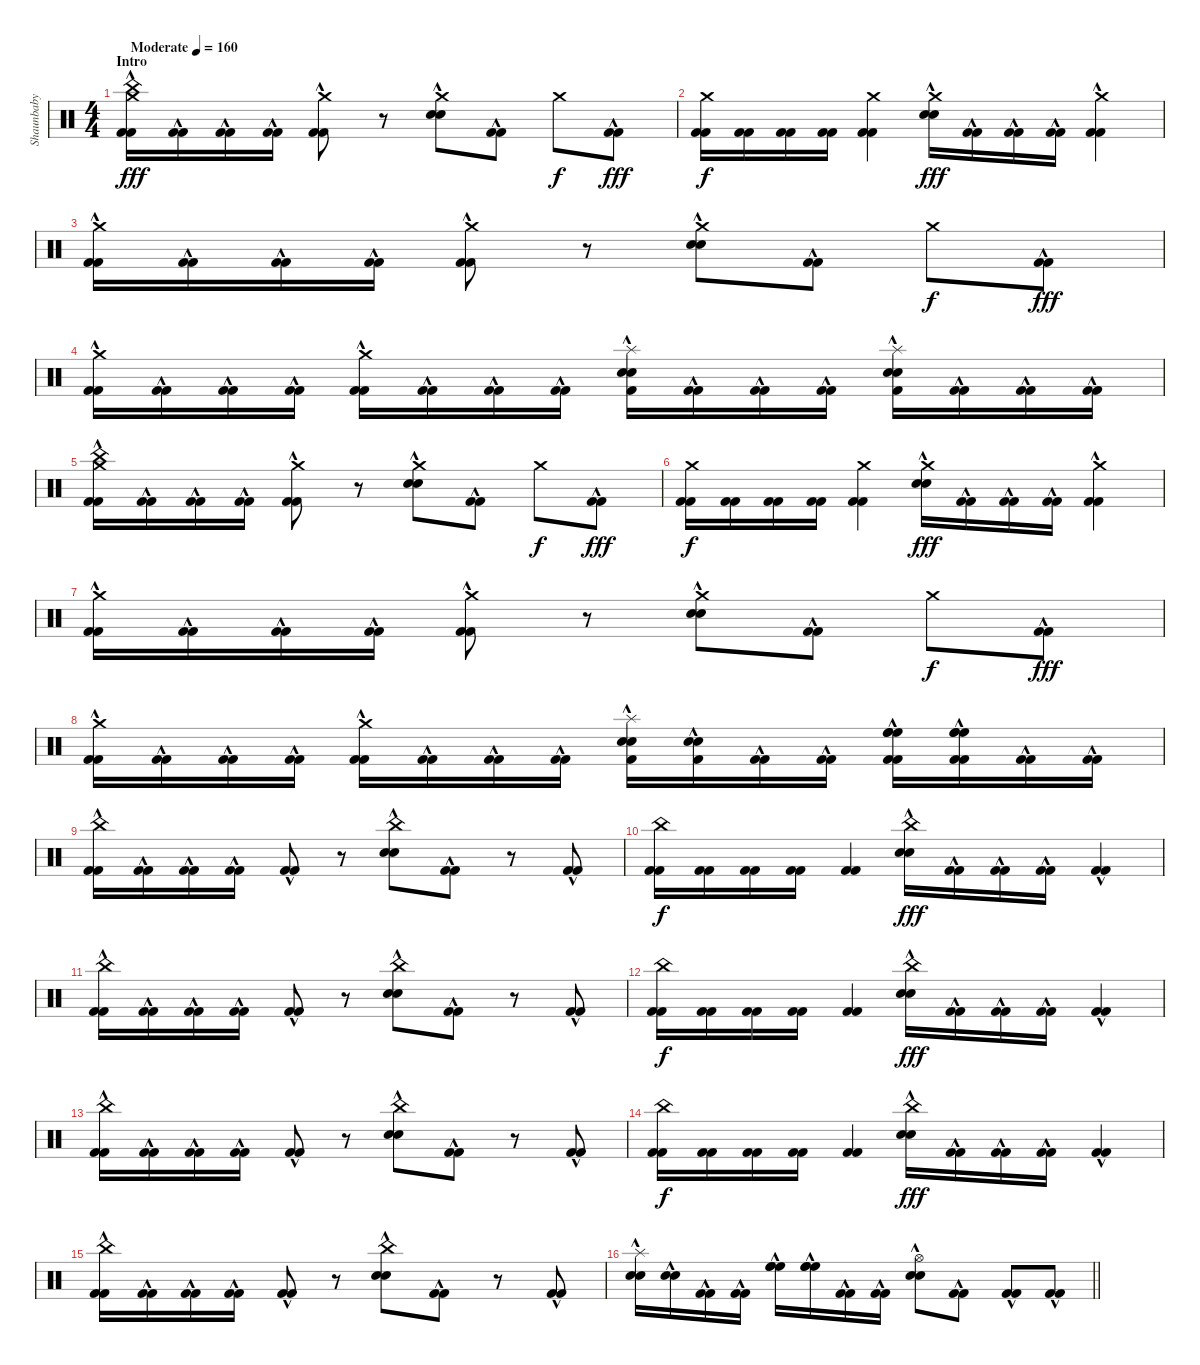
\track ("Shaunbaby" "Shaunbaby") {instrument percussion}
\staff {score}
\articulation defaults
\ts (4 4)
\section ("" "Intro")
\tempo (160 "Moderate")
\clef neutral
\ks c
("China (hit)" "Crash medium (hit)" "Kick (hit) 2"{hac} "Kick (hit) 2"{hac}).16{dy fff} ("Kick (hit) 2"{hac} "Kick (hit) 2"{hac}).16 ("Kick (hit) 2"{hac} "Kick (hit) 2"{hac}).16 ("Kick (hit) 2"{hac} "Kick (hit) 2"{hac}).16 ("Crash medium (hit)" "Kick (hit) 2"{hac} "Kick (hit) 2"{hac}).8 r.8 ("Crash medium (hit)" "Electric Snare (hit)"{hac} "Electric Snare (hit)"{hac}).8 ("Kick (hit) 2"{hac} "Kick (hit) 2"{hac}).8 "Crash medium (hit)".8{dy f} ("Kick (hit) 2"{hac} "Kick (hit) 2"{hac}).8{dy fff} |
("Crash medium (hit)" "Kick (hit) 2" "Kick (hit) 2").16{dy f} ("Kick (hit) 2" "Kick (hit) 2").16 ("Kick (hit) 2" "Kick (hit) 2").16 ("Kick (hit) 2" "Kick (hit) 2").16 ("Crash medium (hit)" "Kick (hit) 2" "Kick (hit) 2").4 ("Crash medium (hit)" "Electric Snare (hit)"{hac} "Electric Snare (hit)"{hac}).16{dy fff} ("Kick (hit) 2"{hac} "Kick (hit) 2"{hac}).16 ("Kick (hit) 2"{hac} "Kick (hit) 2"{hac}).16 ("Kick (hit) 2"{hac} "Kick (hit) 2"{hac}).16 ("Crash medium (hit)" "Kick (hit) 2"{hac} "Kick (hit) 2"{hac}).4 |
("Crash medium (hit)" "Kick (hit) 2"{hac} "Kick (hit) 2"{hac}).16 ("Kick (hit) 2"{hac} "Kick (hit) 2"{hac}).16 ("Kick (hit) 2"{hac} "Kick (hit) 2"{hac}).16 ("Kick (hit) 2"{hac} "Kick (hit) 2"{hac}).16 ("Crash medium (hit)" "Kick (hit) 2"{hac} "Kick (hit) 2"{hac}).8 r.8 ("Crash medium (hit)" "Electric Snare (hit)"{hac} "Electric Snare (hit)"{hac}).8 ("Kick (hit) 2"{hac} "Kick (hit) 2"{hac}).8 "Crash medium (hit)".8{dy f} ("Kick (hit) 2"{hac} "Kick (hit) 2"{hac}).8{dy fff} |
("Crash medium (hit)" "Kick (hit) 2"{hac} "Kick (hit) 2"{hac}).16 ("Kick (hit) 2"{hac} "Kick (hit) 2"{hac}).16 ("Kick (hit) 2"{hac} "Kick (hit) 2"{hac}).16 ("Kick (hit) 2"{hac} "Kick (hit) 2"{hac}).16 ("Crash medium (hit)" "Kick (hit) 2"{hac} "Kick (hit) 2"{hac}).16 ("Kick (hit) 2"{hac} "Kick (hit) 2"{hac}).16 ("Kick (hit) 2"{hac} "Kick (hit) 2"{hac}).16 ("Kick (hit) 2"{hac} "Kick (hit) 2"{hac}).16 ("Splash (hit)" "Electric Snare (hit)"{hac} "Electric Snare (hit)"{hac} "Kick (hit) 2"{hac}).16 ("Kick (hit) 2"{hac} "Kick (hit) 2"{hac}).16 ("Kick (hit) 2"{hac} "Kick (hit) 2"{hac}).16 ("Kick (hit) 2"{hac} "Kick (hit) 2"{hac}).16 ("Splash (hit)" "Electric Snare (hit)"{hac} "Electric Snare (hit)"{hac} "Kick (hit) 2"{hac}).16 ("Kick (hit) 2"{hac} "Kick (hit) 2"{hac}).16 ("Kick (hit) 2"{hac} "Kick (hit) 2"{hac}).16 ("Kick (hit) 2"{hac} "Kick (hit) 2"{hac}).16 |
("China (hit)" "Crash medium (hit)" "Kick (hit) 2"{hac} "Kick (hit) 2"{hac}).16 ("Kick (hit) 2"{hac} "Kick (hit) 2"{hac}).16 ("Kick (hit) 2"{hac} "Kick (hit) 2"{hac}).16 ("Kick (hit) 2"{hac} "Kick (hit) 2"{hac}).16 ("Crash medium (hit)" "Kick (hit) 2"{hac} "Kick (hit) 2"{hac}).8 r.8 ("Crash medium (hit)" "Electric Snare (hit)"{hac} "Electric Snare (hit)"{hac}).8 ("Kick (hit) 2"{hac} "Kick (hit) 2"{hac}).8 "Crash medium (hit)".8{dy f} ("Kick (hit) 2"{hac} "Kick (hit) 2"{hac}).8{dy fff} |
("Crash medium (hit)" "Kick (hit) 2" "Kick (hit) 2").16{dy f} ("Kick (hit) 2" "Kick (hit) 2").16 ("Kick (hit) 2" "Kick (hit) 2").16 ("Kick (hit) 2" "Kick (hit) 2").16 ("Crash medium (hit)" "Kick (hit) 2" "Kick (hit) 2").4 ("Crash medium (hit)" "Electric Snare (hit)"{hac} "Electric Snare (hit)"{hac}).16{dy fff} ("Kick (hit) 2"{hac} "Kick (hit) 2"{hac}).16 ("Kick (hit) 2"{hac} "Kick (hit) 2"{hac}).16 ("Kick (hit) 2"{hac} "Kick (hit) 2"{hac}).16 ("Crash medium (hit)" "Kick (hit) 2"{hac} "Kick (hit) 2"{hac}).4 |
("Crash medium (hit)" "Kick (hit) 2"{hac} "Kick (hit) 2"{hac}).16 ("Kick (hit) 2"{hac} "Kick (hit) 2"{hac}).16 ("Kick (hit) 2"{hac} "Kick (hit) 2"{hac}).16 ("Kick (hit) 2"{hac} "Kick (hit) 2"{hac}).16 ("Crash medium (hit)" "Kick (hit) 2"{hac} "Kick (hit) 2"{hac}).8 r.8 ("Crash medium (hit)" "Electric Snare (hit)"{hac} "Electric Snare (hit)"{hac}).8 ("Kick (hit) 2"{hac} "Kick (hit) 2"{hac}).8 "Crash medium (hit)".8{dy f} ("Kick (hit) 2"{hac} "Kick (hit) 2"{hac}).8{dy fff} |
("Crash medium (hit)" "Kick (hit) 2"{hac} "Kick (hit) 2"{hac}).16 ("Kick (hit) 2"{hac} "Kick (hit) 2"{hac}).16 ("Kick (hit) 2"{hac} "Kick (hit) 2"{hac}).16 ("Kick (hit) 2"{hac} "Kick (hit) 2"{hac}).16 ("Crash medium (hit)" "Kick (hit) 2"{hac} "Kick (hit) 2"{hac}).16 ("Kick (hit) 2"{hac} "Kick (hit) 2"{hac}).16 ("Kick (hit) 2"{hac} "Kick (hit) 2"{hac}).16 ("Kick (hit) 2"{hac} "Kick (hit) 2"{hac}).16 ("Splash (hit)" "Electric Snare (hit)"{hac} "Electric Snare (hit)"{hac} "Kick (hit) 2"{hac}).16 ("Electric Snare (hit)"{hac} "Electric Snare (hit)"{hac} "Kick (hit) 2"{hac}).16 ("Kick (hit) 2"{hac} "Kick (hit) 2"{hac}).16 ("Kick (hit) 2"{hac} "Kick (hit) 2"{hac}).16 ("High Floor Tom (hit)"{hac} "High Floor Tom (hit)"{hac} "High Floor Tom (hit)"{hac} "Kick (hit) 2"{hac} "Kick (hit) 2"{hac}).16 ("High Floor Tom (hit)"{hac} "High Floor Tom (hit)"{hac} "High Floor Tom (hit)"{hac} "Kick (hit) 2"{hac} "Kick (hit) 2"{hac}).16 ("Kick (hit) 2"{hac} "Kick (hit) 2"{hac}).16 ("Kick (hit) 2"{hac} "Kick (hit) 2"{hac}).16 |
("China (hit)" "Kick (hit) 2"{hac} "Kick (hit) 2"{hac}).16 ("Kick (hit) 2"{hac} "Kick (hit) 2"{hac}).16 ("Kick (hit) 2"{hac} "Kick (hit) 2"{hac}).16 ("Kick (hit) 2"{hac} "Kick (hit) 2"{hac}).16 ("Kick (hit) 2"{hac} "Kick (hit) 2"{hac}).8 r.8 ("China (hit)" "Electric Snare (hit)"{hac} "Electric Snare (hit)"{hac}).8 ("Kick (hit) 2"{hac} "Kick (hit) 2"{hac}).8 r.8 ("Kick (hit) 2"{hac} "Kick (hit) 2"{hac}).8 |
("China (hit)" "Kick (hit) 2" "Kick (hit) 2").16{dy f} ("Kick (hit) 2" "Kick (hit) 2").16 ("Kick (hit) 2" "Kick (hit) 2").16 ("Kick (hit) 2" "Kick (hit) 2").16 ("Kick (hit) 2" "Kick (hit) 2").4 ("China (hit)" "Electric Snare (hit)"{hac} "Electric Snare (hit)"{hac}).16{dy fff} ("Kick (hit) 2"{hac} "Kick (hit) 2"{hac}).16 ("Kick (hit) 2"{hac} "Kick (hit) 2"{hac}).16 ("Kick (hit) 2"{hac} "Kick (hit) 2"{hac}).16 ("Kick (hit) 2"{hac} "Kick (hit) 2"{hac}).4 |
("China (hit)" "Kick (hit) 2"{hac} "Kick (hit) 2"{hac}).16 ("Kick (hit) 2"{hac} "Kick (hit) 2"{hac}).16 ("Kick (hit) 2"{hac} "Kick (hit) 2"{hac}).16 ("Kick (hit) 2"{hac} "Kick (hit) 2"{hac}).16 ("Kick (hit) 2"{hac} "Kick (hit) 2"{hac}).8 r.8 ("China (hit)" "Electric Snare (hit)"{hac} "Electric Snare (hit)"{hac}).8 ("Kick (hit) 2"{hac} "Kick (hit) 2"{hac}).8 r.8 ("Kick (hit) 2"{hac} "Kick (hit) 2"{hac}).8 |
("China (hit)" "Kick (hit) 2" "Kick (hit) 2").16{dy f} ("Kick (hit) 2" "Kick (hit) 2").16 ("Kick (hit) 2" "Kick (hit) 2").16 ("Kick (hit) 2" "Kick (hit) 2").16 ("Kick (hit) 2" "Kick (hit) 2").4 ("China (hit)" "Electric Snare (hit)"{hac} "Electric Snare (hit)"{hac}).16{dy fff} ("Kick (hit) 2"{hac} "Kick (hit) 2"{hac}).16 ("Kick (hit) 2"{hac} "Kick (hit) 2"{hac}).16 ("Kick (hit) 2"{hac} "Kick (hit) 2"{hac}).16 ("Kick (hit) 2"{hac} "Kick (hit) 2"{hac}).4 |
("China (hit)" "Kick (hit) 2"{hac} "Kick (hit) 2"{hac}).16 ("Kick (hit) 2"{hac} "Kick (hit) 2"{hac}).16 ("Kick (hit) 2"{hac} "Kick (hit) 2"{hac}).16 ("Kick (hit) 2"{hac} "Kick (hit) 2"{hac}).16 ("Kick (hit) 2"{hac} "Kick (hit) 2"{hac}).8 r.8 ("China (hit)" "Electric Snare (hit)"{hac} "Electric Snare (hit)"{hac}).8 ("Kick (hit) 2"{hac} "Kick (hit) 2"{hac}).8 r.8 ("Kick (hit) 2"{hac} "Kick (hit) 2"{hac}).8 |
("China (hit)" "Kick (hit) 2" "Kick (hit) 2").16{dy f} ("Kick (hit) 2" "Kick (hit) 2").16 ("Kick (hit) 2" "Kick (hit) 2").16 ("Kick (hit) 2" "Kick (hit) 2").16 ("Kick (hit) 2" "Kick (hit) 2").4 ("China (hit)" "Electric Snare (hit)"{hac} "Electric Snare (hit)"{hac}).16{dy fff} ("Kick (hit) 2"{hac} "Kick (hit) 2"{hac}).16 ("Kick (hit) 2"{hac} "Kick (hit) 2"{hac}).16 ("Kick (hit) 2"{hac} "Kick (hit) 2"{hac}).16 ("Kick (hit) 2"{hac} "Kick (hit) 2"{hac}).4 |
("China (hit)" "Kick (hit) 2"{hac} "Kick (hit) 2"{hac}).16 ("Kick (hit) 2"{hac} "Kick (hit) 2"{hac}).16 ("Kick (hit) 2"{hac} "Kick (hit) 2"{hac}).16 ("Kick (hit) 2"{hac} "Kick (hit) 2"{hac}).16 ("Kick (hit) 2"{hac} "Kick (hit) 2"{hac}).8 r.8 ("China (hit)" "Electric Snare (hit)"{hac} "Electric Snare (hit)"{hac}).8 ("Kick (hit) 2"{hac} "Kick (hit) 2"{hac}).8 r.8 ("Kick (hit) 2"{hac} "Kick (hit) 2"{hac}).8 |
\barLineRight lightlight
("Splash (hit)" "Electric Snare (hit)"{hac} "Electric Snare (hit)"{hac}).16 ("Electric Snare (hit)"{hac} "Electric Snare (hit)"{hac}).16 ("Kick (hit) 2"{hac} "Kick (hit) 2"{hac}).16 ("Kick (hit) 2"{hac} "Kick (hit) 2"{hac}).16 ("High Floor Tom (hit)"{hac} "High Floor Tom (hit)"{hac} "High Floor Tom (hit)"{hac}).16 ("High Floor Tom (hit)"{hac} "High Floor Tom (hit)"{hac} "High Floor Tom (hit)"{hac}).16 ("Kick (hit) 2"{hac} "Kick (hit) 2"{hac}).16 ("Kick (hit) 2"{hac} "Kick (hit) 2"{hac}).16 ("Hi-Hat (open)" "Electric Snare (hit)"{hac} "Electric Snare (hit)"{hac}).8 ("Kick (hit) 2"{hac} "Kick (hit) 2"{hac}).8 ("Kick (hit) 2"{hac} "Kick (hit) 2"{hac}).8 ("Kick (hit) 2"{hac} "Kick (hit) 2"{hac}).8
